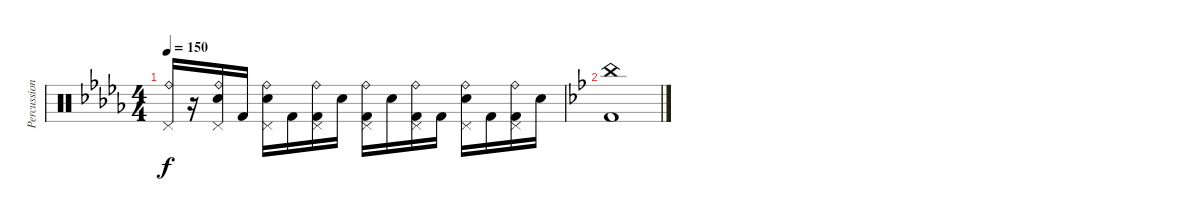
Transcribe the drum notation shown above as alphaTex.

\track ("Percussion" "Percussion") {instrument percussion}
\staff {score}
\articulation defaults
\ts (4 4)
\tempo 150
\clef neutral
\ks bbminor
("Ride (bell)" "Pedal Hi-Hat (hit)").16{dy f} r.16 ("Ride (bell)" "Electric Snare (hit)" "Pedal Hi-Hat (hit)").16 "Kick (hit) 2".16 ("Ride (bell)" "Electric Snare (hit)" "Pedal Hi-Hat (hit)").16 "Kick (hit) 2".16 ("Ride (bell)" "Pedal Hi-Hat (hit)" "Kick (hit) 2").16 "Electric Snare (hit)".16 ("Ride (bell)" "Pedal Hi-Hat (hit)" "Kick (hit) 2").16 "Electric Snare (hit)".16 ("Ride (bell)" "Pedal Hi-Hat (hit)" "Kick (hit) 2").16 "Kick (hit) 2".16 ("Ride (bell)" "Electric Snare (hit)" "Pedal Hi-Hat (hit)").16 "Kick (hit) 2".16 ("Ride (bell)" "Pedal Hi-Hat (hit)" "Kick (hit) 2").16 "Electric Snare (hit)".16 |
\ks bb
("China (hit)" "Kick (hit) 2").1
